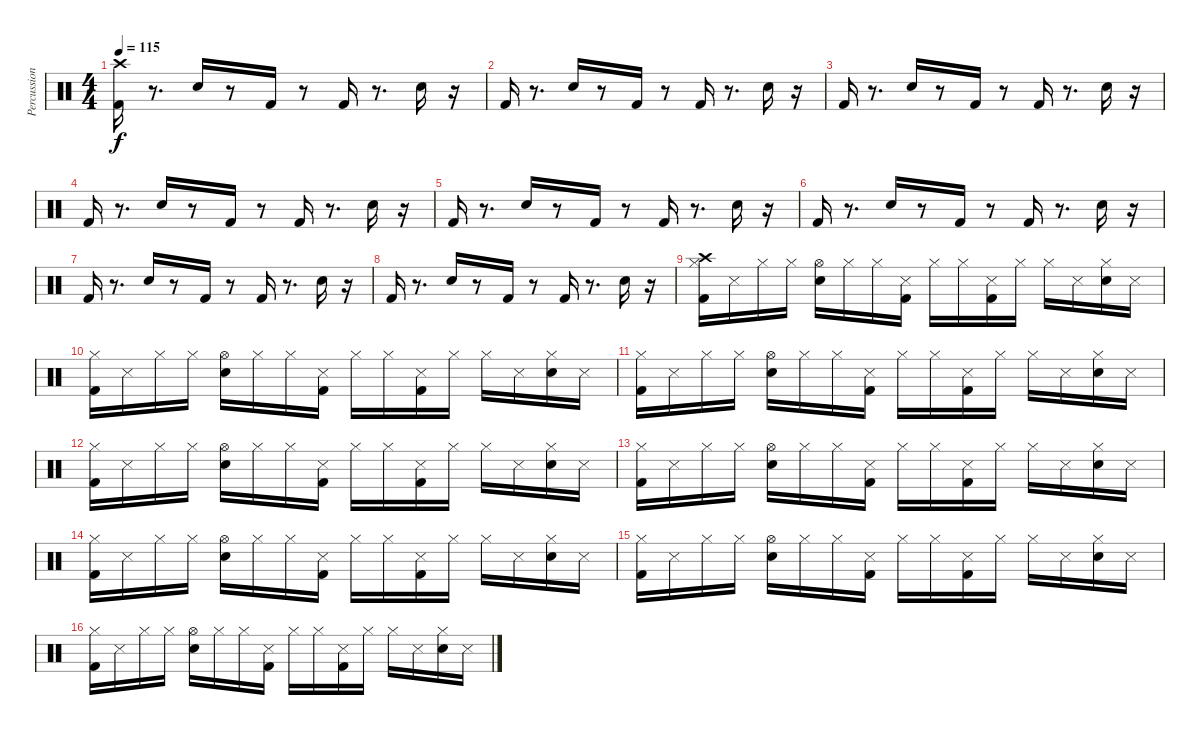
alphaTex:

\track ("Percussion (TR808 Kit)" "Percussion") {instrument percussion}
\staff {score}
\articulation defaults
\ts (4 4)
\tempo 115
\clef neutral
\ks c
("Kick (hit) 2" "Crash high (hit)").16{dy f} r.8{d} "Snare (hit) 2".16 r.8 "Kick (hit) 2".16 r.8 "Kick (hit) 2".16 r.8{d} "Snare (hit) 2".16 r.16 |
"Kick (hit) 2".16 r.8{d} "Snare (hit) 2".16 r.8 "Kick (hit) 2".16 r.8 "Kick (hit) 2".16 r.8{d} "Snare (hit) 2".16 r.16 |
"Kick (hit) 2".16 r.8{d} "Snare (hit) 2".16 r.8 "Kick (hit) 2".16 r.8 "Kick (hit) 2".16 r.8{d} "Snare (hit) 2".16 r.16 |
"Kick (hit) 2".16 r.8{d} "Snare (hit) 2".16 r.8 "Kick (hit) 2".16 r.8 "Kick (hit) 2".16 r.8{d} "Snare (hit) 2".16 r.16 |
"Kick (hit) 2".16 r.8{d} "Snare (hit) 2".16 r.8 "Kick (hit) 2".16 r.8 "Kick (hit) 2".16 r.8{d} "Snare (hit) 2".16 r.16 |
"Kick (hit) 2".16 r.8{d} "Snare (hit) 2".16 r.8 "Kick (hit) 2".16 r.8 "Kick (hit) 2".16 r.8{d} "Snare (hit) 2".16 r.16 |
"Kick (hit) 2".16 r.8{d} "Snare (hit) 2".16 r.8 "Kick (hit) 2".16 r.8 "Kick (hit) 2".16 r.8{d} "Snare (hit) 2".16 r.16 |
"Kick (hit) 2".16 r.8{d} "Snare (hit) 2".16 r.8 "Kick (hit) 2".16 r.8 "Kick (hit) 2".16 r.8{d} "Snare (hit) 2".16 r.16 |
("Hi-Hat (closed)" "Kick (hit) 2" "Crash high (hit)").16 "Snare (side stick) 3".16 "Hi-Hat (closed)".16 "Hi-Hat (closed)".16 ("Hi-Hat (open)" "Snare (hit) 2").16 "Hi-Hat (closed)".16 "Hi-Hat (closed)".16 ("Snare (side stick) 3" "Kick (hit) 2").16 "Hi-Hat (closed)".16 "Hi-Hat (closed)".16 ("Snare (side stick) 3" "Kick (hit) 2").16 "Hi-Hat (closed)".16 "Hi-Hat (closed)".16 "Snare (side stick) 3".16 ("Hi-Hat (closed)" "Snare (hit) 2").16 "Snare (side stick) 3".16 |
("Hi-Hat (closed)" "Kick (hit) 2").16 "Snare (side stick) 3".16 "Hi-Hat (closed)".16 "Hi-Hat (closed)".16 ("Hi-Hat (open)" "Snare (hit) 2").16 "Hi-Hat (closed)".16 "Hi-Hat (closed)".16 ("Snare (side stick) 3" "Kick (hit) 2").16 "Hi-Hat (closed)".16 "Hi-Hat (closed)".16 ("Snare (side stick) 3" "Kick (hit) 2").16 "Hi-Hat (closed)".16 "Hi-Hat (closed)".16 "Snare (side stick) 3".16 ("Hi-Hat (closed)" "Snare (hit) 2").16 "Snare (side stick) 3".16 |
("Hi-Hat (closed)" "Kick (hit) 2").16 "Snare (side stick) 3".16 "Hi-Hat (closed)".16 "Hi-Hat (closed)".16 ("Hi-Hat (open)" "Snare (hit) 2").16 "Hi-Hat (closed)".16 "Hi-Hat (closed)".16 ("Snare (side stick) 3" "Kick (hit) 2").16 "Hi-Hat (closed)".16 "Hi-Hat (closed)".16 ("Snare (side stick) 3" "Kick (hit) 2").16 "Hi-Hat (closed)".16 "Hi-Hat (closed)".16 "Snare (side stick) 3".16 ("Hi-Hat (closed)" "Snare (hit) 2").16 "Snare (side stick) 3".16 |
("Hi-Hat (closed)" "Kick (hit) 2").16 "Snare (side stick) 3".16 "Hi-Hat (closed)".16 "Hi-Hat (closed)".16 ("Hi-Hat (open)" "Snare (hit) 2").16 "Hi-Hat (closed)".16 "Hi-Hat (closed)".16 ("Snare (side stick) 3" "Kick (hit) 2").16 "Hi-Hat (closed)".16 "Hi-Hat (closed)".16 ("Snare (side stick) 3" "Kick (hit) 2").16 "Hi-Hat (closed)".16 "Hi-Hat (closed)".16 "Snare (side stick) 3".16 ("Hi-Hat (closed)" "Snare (hit) 2").16 "Snare (side stick) 3".16 |
("Hi-Hat (closed)" "Kick (hit) 2").16 "Snare (side stick) 3".16 "Hi-Hat (closed)".16 "Hi-Hat (closed)".16 ("Hi-Hat (open)" "Snare (hit) 2").16 "Hi-Hat (closed)".16 "Hi-Hat (closed)".16 ("Snare (side stick) 3" "Kick (hit) 2").16 "Hi-Hat (closed)".16 "Hi-Hat (closed)".16 ("Snare (side stick) 3" "Kick (hit) 2").16 "Hi-Hat (closed)".16 "Hi-Hat (closed)".16 "Snare (side stick) 3".16 ("Hi-Hat (closed)" "Snare (hit) 2").16 "Snare (side stick) 3".16 |
("Hi-Hat (closed)" "Kick (hit) 2").16 "Snare (side stick) 3".16 "Hi-Hat (closed)".16 "Hi-Hat (closed)".16 ("Hi-Hat (open)" "Snare (hit) 2").16 "Hi-Hat (closed)".16 "Hi-Hat (closed)".16 ("Snare (side stick) 3" "Kick (hit) 2").16 "Hi-Hat (closed)".16 "Hi-Hat (closed)".16 ("Snare (side stick) 3" "Kick (hit) 2").16 "Hi-Hat (closed)".16 "Hi-Hat (closed)".16 "Snare (side stick) 3".16 ("Hi-Hat (closed)" "Snare (hit) 2").16 "Snare (side stick) 3".16 |
("Hi-Hat (closed)" "Kick (hit) 2").16 "Snare (side stick) 3".16 "Hi-Hat (closed)".16 "Hi-Hat (closed)".16 ("Hi-Hat (open)" "Snare (hit) 2").16 "Hi-Hat (closed)".16 "Hi-Hat (closed)".16 ("Snare (side stick) 3" "Kick (hit) 2").16 "Hi-Hat (closed)".16 "Hi-Hat (closed)".16 ("Snare (side stick) 3" "Kick (hit) 2").16 "Hi-Hat (closed)".16 "Hi-Hat (closed)".16 "Snare (side stick) 3".16 ("Hi-Hat (closed)" "Snare (hit) 2").16 "Snare (side stick) 3".16 |
("Hi-Hat (closed)" "Kick (hit) 2").16 "Snare (side stick) 3".16 "Hi-Hat (closed)".16 "Hi-Hat (closed)".16 ("Hi-Hat (open)" "Snare (hit) 2").16 "Hi-Hat (closed)".16 "Hi-Hat (closed)".16 ("Snare (side stick) 3" "Kick (hit) 2").16 "Hi-Hat (closed)".16 "Hi-Hat (closed)".16 ("Snare (side stick) 3" "Kick (hit) 2").16 "Hi-Hat (closed)".16 "Hi-Hat (closed)".16 "Snare (side stick) 3".16 ("Hi-Hat (closed)" "Snare (hit) 2").16 "Snare (side stick) 3".16
